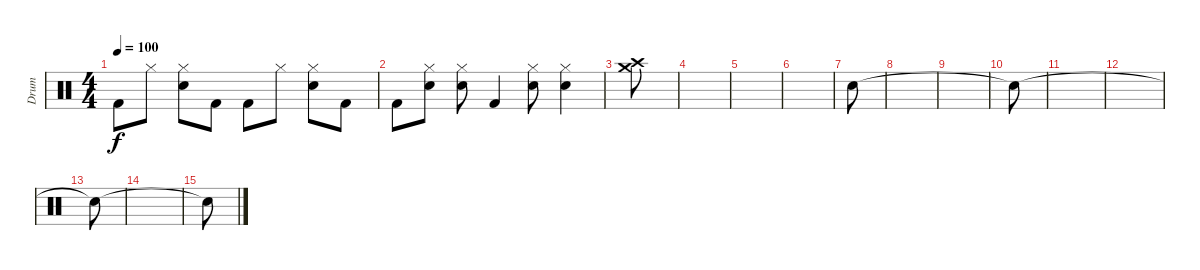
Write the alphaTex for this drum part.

\track ("Drum" "Drum") {instrument percussion}
\staff {score}
\articulation defaults
\ts (4 4)
\tempo 100
\clef neutral
\ks c "Kick (hit) 2".8{dy f} "Hi-Hat (closed)".8
("Hi-Hat (closed)" "Electric Snare (hit)").8 "Kick (hit) 2".8 "Kick (hit) 2".8 "Hi-Hat (closed)".8 ("Hi-Hat (closed)" "Electric Snare (hit)").8 "Kick (hit) 2".8 |
"Kick (hit) 2".8 ("Hi-Hat (closed)" "Electric Snare (hit)").8 ("Hi-Hat (closed)" "Electric Snare (hit)").8 "Kick (hit) 2".4 ("Hi-Hat (closed)" "Electric Snare (hit)").8 ("Hi-Hat (closed)" "Electric Snare (hit)").4 |
("Crash high (hit)" "Crash medium (hit)").8 |
|
|
|
"Snare (hit)".8 |
|
|
"Snare (hit)"{t}.8 |
|
|
"Snare (hit)"{t}.8 |
|
"Snare (hit)"{t}.8
